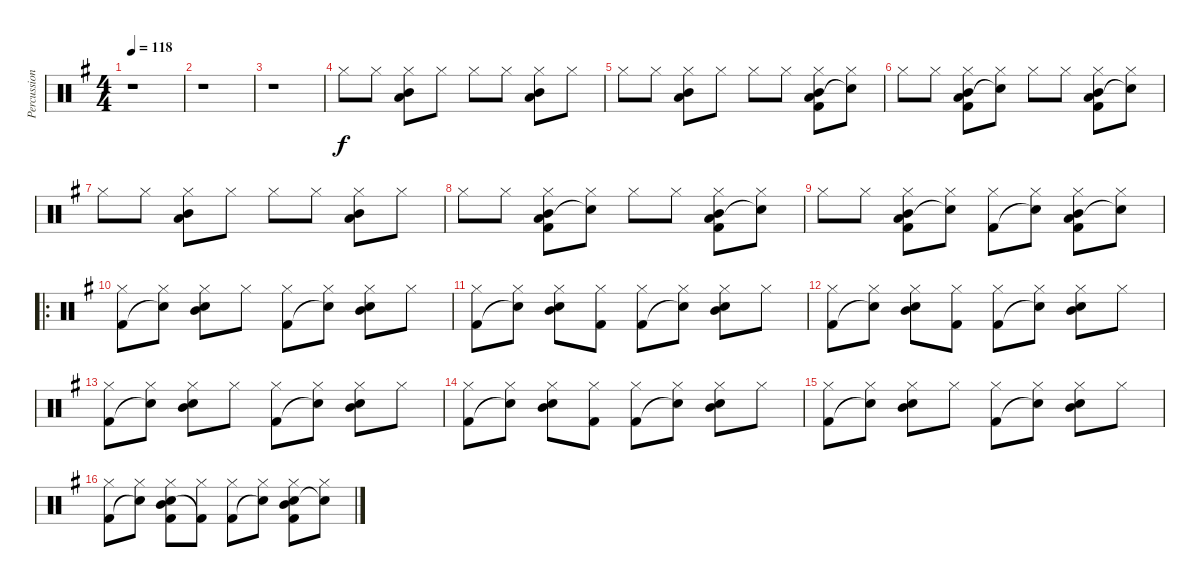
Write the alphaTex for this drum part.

\track ("Percussion" "Percussion") {instrument percussion}
\staff {score}
\articulation defaults
\ts (4 4)
\tempo 118
\clef neutral
\ks g
r.1{dy f} |
r.1 |
r.1 |
"Hi-Hat (closed)".8 "Hi-Hat (closed)".8 ("Hi-Hat (closed)" "Low Tom (hit)" "Mid Tom (hit)").8 "Hi-Hat (closed)".8 "Hi-Hat (closed)".8 "Hi-Hat (closed)".8 ("Hi-Hat (closed)" "Low Tom (hit)" "Mid Tom (hit)").8 "Hi-Hat (closed)".8 |
"Hi-Hat (closed)".8 "Hi-Hat (closed)".8 ("Hi-Hat (closed)" "Low Tom (hit)" "Mid Tom (hit)").8 "Hi-Hat (closed)".8 "Hi-Hat (closed)".8 "Hi-Hat (closed)".8 ("Hi-Hat (closed)" "Low Tom (hit)" "Mid Tom (hit)" "Kick (hit) 2").8 ("Hi-Hat (closed)" "Snare (hit)"{t}).8 |
"Hi-Hat (closed)".8 "Hi-Hat (closed)".8 ("Hi-Hat (closed)" "Low Tom (hit)" "Mid Tom (hit)" "Kick (hit) 2").8 ("Hi-Hat (closed)" "Snare (hit)"{t}).8 "Hi-Hat (closed)".8 "Hi-Hat (closed)".8 ("Hi-Hat (closed)" "Low Tom (hit)" "Mid Tom (hit)" "Kick (hit) 2").8 ("Hi-Hat (closed)" "Snare (hit)"{t}).8 |
"Hi-Hat (closed)".8 "Hi-Hat (closed)".8 ("Hi-Hat (closed)" "Low Tom (hit)" "Mid Tom (hit)").8 "Hi-Hat (closed)".8 "Hi-Hat (closed)".8 "Hi-Hat (closed)".8 ("Hi-Hat (closed)" "Low Tom (hit)" "Mid Tom (hit)").8 "Hi-Hat (closed)".8 |
"Hi-Hat (closed)".8 "Hi-Hat (closed)".8 ("Hi-Hat (closed)" "Low Tom (hit)" "Mid Tom (hit)" "Kick (hit) 2").8 ("Hi-Hat (closed)" "Snare (hit)"{t}).8 "Hi-Hat (closed)".8 "Hi-Hat (closed)".8 ("Hi-Hat (closed)" "Low Tom (hit)" "Mid Tom (hit)" "Kick (hit) 2").8 ("Hi-Hat (closed)" "Snare (hit)"{t}).8 |
"Hi-Hat (closed)".8 "Hi-Hat (closed)".8 ("Hi-Hat (closed)" "Low Tom (hit)" "Mid Tom (hit)" "Kick (hit) 2").8 ("Hi-Hat (closed)" "Snare (hit)"{t}).8 ("Hi-Hat (closed)" "Kick (hit) 2").8 ("Hi-Hat (closed)" "Snare (hit)"{t}).8 ("Hi-Hat (closed)" "Low Tom (hit)" "Mid Tom (hit)" "Kick (hit) 2").8 ("Hi-Hat (closed)" "Snare (hit)"{t}).8 |
\ro
("Hi-Hat (closed)" "Kick (hit) 2").8 ("Hi-Hat (closed)" "Snare (hit)"{t}).8 ("Hi-Hat (closed)" "Snare (hit) 2" "Mid Tom (hit)").8 "Hi-Hat (closed)".8 ("Hi-Hat (closed)" "Kick (hit) 2").8 ("Hi-Hat (closed)" "Snare (hit)"{t}).8 ("Hi-Hat (closed)" "Snare (hit) 2" "Mid Tom (hit)").8 "Hi-Hat (closed)".8 |
("Hi-Hat (closed)" "Kick (hit) 2").8 ("Hi-Hat (closed)" "Snare (hit)"{t}).8 ("Hi-Hat (closed)" "Snare (hit) 2" "Mid Tom (hit)").8 ("Hi-Hat (closed)" "Kick (hit) 2").8 ("Hi-Hat (closed)" "Kick (hit) 2").8 ("Hi-Hat (closed)" "Snare (hit)"{t}).8 ("Hi-Hat (closed)" "Snare (hit) 2" "Mid Tom (hit)").8 "Hi-Hat (closed)".8 |
("Hi-Hat (closed)" "Kick (hit) 2").8 ("Hi-Hat (closed)" "Snare (hit)"{t}).8 ("Hi-Hat (closed)" "Snare (hit) 2" "Mid Tom (hit)").8 ("Hi-Hat (closed)" "Kick (hit) 2").8 ("Hi-Hat (closed)" "Kick (hit) 2").8 ("Hi-Hat (closed)" "Snare (hit)"{t}).8 ("Hi-Hat (closed)" "Snare (hit) 2" "Mid Tom (hit)").8 "Hi-Hat (closed)".8 |
("Hi-Hat (closed)" "Kick (hit) 2").8 ("Hi-Hat (closed)" "Snare (hit)"{t}).8 ("Hi-Hat (closed)" "Snare (hit) 2" "Mid Tom (hit)").8 "Hi-Hat (closed)".8 ("Hi-Hat (closed)" "Kick (hit) 2").8 ("Hi-Hat (closed)" "Snare (hit)"{t}).8 ("Hi-Hat (closed)" "Snare (hit) 2" "Mid Tom (hit)").8 "Hi-Hat (closed)".8 |
("Hi-Hat (closed)" "Kick (hit) 2").8 ("Hi-Hat (closed)" "Snare (hit)"{t}).8 ("Hi-Hat (closed)" "Snare (hit) 2" "Mid Tom (hit)").8 ("Hi-Hat (closed)" "Kick (hit) 2").8 ("Hi-Hat (closed)" "Kick (hit) 2").8 ("Hi-Hat (closed)" "Snare (hit)"{t}).8 ("Hi-Hat (closed)" "Snare (hit) 2" "Mid Tom (hit)").8 "Hi-Hat (closed)".8 |
("Hi-Hat (closed)" "Kick (hit) 2").8 ("Hi-Hat (closed)" "Snare (hit)"{t}).8 ("Hi-Hat (closed)" "Snare (hit) 2" "Mid Tom (hit)").8 "Hi-Hat (closed)".8 ("Hi-Hat (closed)" "Kick (hit) 2").8 ("Hi-Hat (closed)" "Snare (hit)"{t}).8 ("Hi-Hat (closed)" "Snare (hit) 2" "Mid Tom (hit)").8 "Hi-Hat (closed)".8 |
("Hi-Hat (closed)" "Kick (hit) 2").8 ("Hi-Hat (closed)" "Snare (hit)"{t}).8 ("Hi-Hat (closed)" "Snare (hit) 2" "Mid Tom (hit)" "Kick (hit) 2").8 ("Hi-Hat (closed)" "Kick (hit) 2"{t}).8 ("Hi-Hat (closed)" "Kick (hit) 2").8 ("Hi-Hat (closed)" "Snare (hit)"{t}).8 ("Hi-Hat (closed)" "Snare (hit) 2" "Mid Tom (hit)" "Kick (hit) 2").8 ("Hi-Hat (closed)" "Snare (hit)"{t}).8
